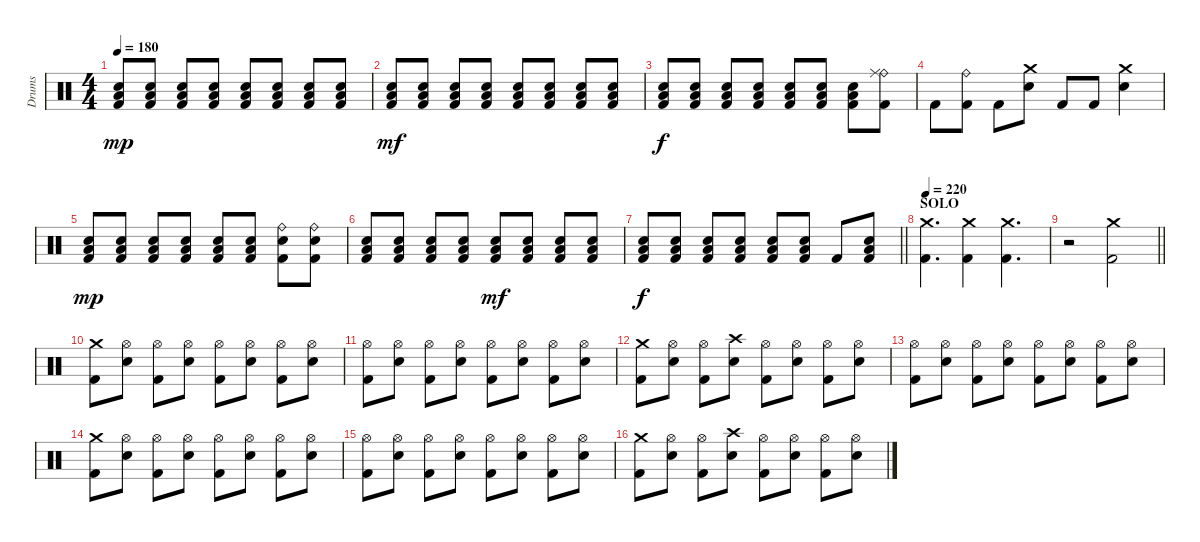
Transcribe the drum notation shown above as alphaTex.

\track ("Drums" "Drums") {instrument percussion}
\staff {score}
\articulation defaults
\ts (4 4)
\tempo 180
\clef neutral
\ks c
("Low Floor Tom (hit)" "Electric Snare (hit)" "Kick (hit) 2").8{dy mp} ("Low Floor Tom (hit)" "Electric Snare (hit)" "Kick (hit) 2").8 ("Low Floor Tom (hit)" "Electric Snare (hit)" "Kick (hit) 2").8 ("Low Floor Tom (hit)" "Electric Snare (hit)" "Kick (hit) 2").8 ("Low Floor Tom (hit)" "Electric Snare (hit)" "Kick (hit) 2").8 ("Low Floor Tom (hit)" "Electric Snare (hit)" "Kick (hit) 2").8 ("Low Floor Tom (hit)" "Electric Snare (hit)" "Kick (hit) 2").8 ("Low Floor Tom (hit)" "Electric Snare (hit)" "Kick (hit) 2").8 |
("Low Floor Tom (hit)" "Electric Snare (hit)" "Kick (hit) 2").8{dy mf} ("Low Floor Tom (hit)" "Electric Snare (hit)" "Kick (hit) 2").8 ("Low Floor Tom (hit)" "Electric Snare (hit)" "Kick (hit) 2").8 ("Low Floor Tom (hit)" "Electric Snare (hit)" "Kick (hit) 2").8 ("Low Floor Tom (hit)" "Electric Snare (hit)" "Kick (hit) 2").8 ("Low Floor Tom (hit)" "Electric Snare (hit)" "Kick (hit) 2").8 ("Low Floor Tom (hit)" "Electric Snare (hit)" "Kick (hit) 2").8 ("Low Floor Tom (hit)" "Electric Snare (hit)" "Kick (hit) 2").8 |
("Low Floor Tom (hit)" "Electric Snare (hit)" "Kick (hit) 2").8{dy f} ("Low Floor Tom (hit)" "Electric Snare (hit)" "Kick (hit) 2").8 ("Low Floor Tom (hit)" "Electric Snare (hit)" "Kick (hit) 2").8 ("Low Floor Tom (hit)" "Electric Snare (hit)" "Kick (hit) 2").8 ("Low Floor Tom (hit)" "Electric Snare (hit)" "Kick (hit) 2").8 ("Low Floor Tom (hit)" "Electric Snare (hit)" "Kick (hit) 2").8 ("Low Floor Tom (hit)" "Electric Snare (hit)" "Kick (hit) 2").8 ("Ride (bell)" "Ride (middle)" "Kick (hit) 2").8 |
"Kick (hit) 2".8 ("Ride (bell)" "Kick (hit) 2").8 "Kick (hit) 2".8 ("Crash medium (hit)" "Electric Snare (hit)").8 "Kick (hit) 2".8 "Kick (hit) 2".8 ("Crash medium (hit)" "Electric Snare (hit)").4 |
("Low Floor Tom (hit)" "Electric Snare (hit)" "Kick (hit) 2").8{dy mp} ("Low Floor Tom (hit)" "Electric Snare (hit)" "Kick (hit) 2").8 ("Low Floor Tom (hit)" "Electric Snare (hit)" "Kick (hit) 2").8 ("Low Floor Tom (hit)" "Electric Snare (hit)" "Kick (hit) 2").8 ("Low Floor Tom (hit)" "Electric Snare (hit)" "Kick (hit) 2").8 ("Low Floor Tom (hit)" "Electric Snare (hit)" "Kick (hit) 2").8 ("Ride (bell)" "Electric Snare (hit)" "Kick (hit) 2").8 ("Ride (bell)" "Electric Snare (hit)" "Kick (hit) 2").8 |
("Low Floor Tom (hit)" "Electric Snare (hit)" "Kick (hit) 2").8 ("Low Floor Tom (hit)" "Electric Snare (hit)" "Kick (hit) 2").8 ("Low Floor Tom (hit)" "Electric Snare (hit)" "Kick (hit) 2").8 ("Low Floor Tom (hit)" "Electric Snare (hit)" "Kick (hit) 2").8 ("Low Floor Tom (hit)" "Electric Snare (hit)" "Kick (hit) 2").8{dy mf} ("Low Floor Tom (hit)" "Electric Snare (hit)" "Kick (hit) 2").8 ("Low Floor Tom (hit)" "Electric Snare (hit)" "Kick (hit) 2").8 ("Low Floor Tom (hit)" "Electric Snare (hit)" "Kick (hit) 2").8 |
\barLineRight lightlight
("Low Floor Tom (hit)" "Electric Snare (hit)" "Kick (hit) 2").8{dy f} ("Low Floor Tom (hit)" "Electric Snare (hit)" "Kick (hit) 2").8 ("Low Floor Tom (hit)" "Electric Snare (hit)" "Kick (hit) 2").8 ("Low Floor Tom (hit)" "Electric Snare (hit)" "Kick (hit) 2").8 ("Low Floor Tom (hit)" "Electric Snare (hit)" "Kick (hit) 2").8 ("Low Floor Tom (hit)" "Electric Snare (hit)" "Kick (hit) 2").8 "Kick (hit) 2".8 ("Low Floor Tom (hit)" "Electric Snare (hit)" "Kick (hit) 2").8 |
\section ("" "SOLO")
\tempo 220
("Crash medium (hit)" "Kick (hit) 2").4{d} ("Crash medium (hit)" "Kick (hit) 2").4 ("Crash medium (hit)" "Kick (hit) 2").4{d} |
\barLineRight lightlight
r.2 ("Crash medium (hit)" "Kick (hit) 2").2 |
\section ("" "")
("Crash medium (hit)" "Kick (hit) 2").8 ("Hi-Hat (open)" "Electric Snare (hit)").8 ("Hi-Hat (open)" "Kick (hit) 2").8 ("Hi-Hat (open)" "Electric Snare (hit)").8 ("Hi-Hat (open)" "Kick (hit) 2").8 ("Hi-Hat (open)" "Electric Snare (hit)").8 ("Hi-Hat (open)" "Kick (hit) 2").8 ("Hi-Hat (open)" "Electric Snare (hit)").8 |
("Hi-Hat (open)" "Kick (hit) 2").8 ("Hi-Hat (open)" "Electric Snare (hit)").8 ("Hi-Hat (open)" "Kick (hit) 2").8 ("Hi-Hat (open)" "Electric Snare (hit)").8 ("Hi-Hat (open)" "Kick (hit) 2").8 ("Hi-Hat (open)" "Electric Snare (hit)").8 ("Hi-Hat (open)" "Kick (hit) 2").8 ("Hi-Hat (open)" "Electric Snare (hit)").8 |
("Crash medium (hit)" "Kick (hit) 2").8 ("Hi-Hat (open)" "Electric Snare (hit)").8 ("Hi-Hat (open)" "Kick (hit) 2").8 ("Crash high (hit)" "Electric Snare (hit)").8 ("Hi-Hat (open)" "Kick (hit) 2").8 ("Hi-Hat (open)" "Electric Snare (hit)").8 ("Hi-Hat (open)" "Kick (hit) 2").8 ("Hi-Hat (open)" "Electric Snare (hit)").8 |
("Hi-Hat (open)" "Kick (hit) 2").8 ("Hi-Hat (open)" "Electric Snare (hit)").8 ("Hi-Hat (open)" "Kick (hit) 2").8 ("Hi-Hat (open)" "Electric Snare (hit)").8 ("Hi-Hat (open)" "Kick (hit) 2").8 ("Hi-Hat (open)" "Electric Snare (hit)").8 ("Hi-Hat (open)" "Kick (hit) 2").8 ("Hi-Hat (open)" "Electric Snare (hit)").8 |
("Crash medium (hit)" "Kick (hit) 2").8 ("Hi-Hat (open)" "Electric Snare (hit)").8 ("Hi-Hat (open)" "Kick (hit) 2").8 ("Hi-Hat (open)" "Electric Snare (hit)").8 ("Hi-Hat (open)" "Kick (hit) 2").8 ("Hi-Hat (open)" "Electric Snare (hit)").8 ("Hi-Hat (open)" "Kick (hit) 2").8 ("Hi-Hat (open)" "Electric Snare (hit)").8 |
("Hi-Hat (open)" "Kick (hit) 2").8 ("Hi-Hat (open)" "Electric Snare (hit)").8 ("Hi-Hat (open)" "Kick (hit) 2").8 ("Hi-Hat (open)" "Electric Snare (hit)").8 ("Hi-Hat (open)" "Kick (hit) 2").8 ("Hi-Hat (open)" "Electric Snare (hit)").8 ("Hi-Hat (open)" "Kick (hit) 2").8 ("Hi-Hat (open)" "Electric Snare (hit)").8 |
("Crash medium (hit)" "Kick (hit) 2").8 ("Hi-Hat (open)" "Electric Snare (hit)").8 ("Hi-Hat (open)" "Kick (hit) 2").8 ("Crash high (hit)" "Electric Snare (hit)").8 ("Hi-Hat (open)" "Kick (hit) 2").8 ("Hi-Hat (open)" "Electric Snare (hit)").8 ("Hi-Hat (open)" "Kick (hit) 2").8 ("Hi-Hat (open)" "Electric Snare (hit)").8
